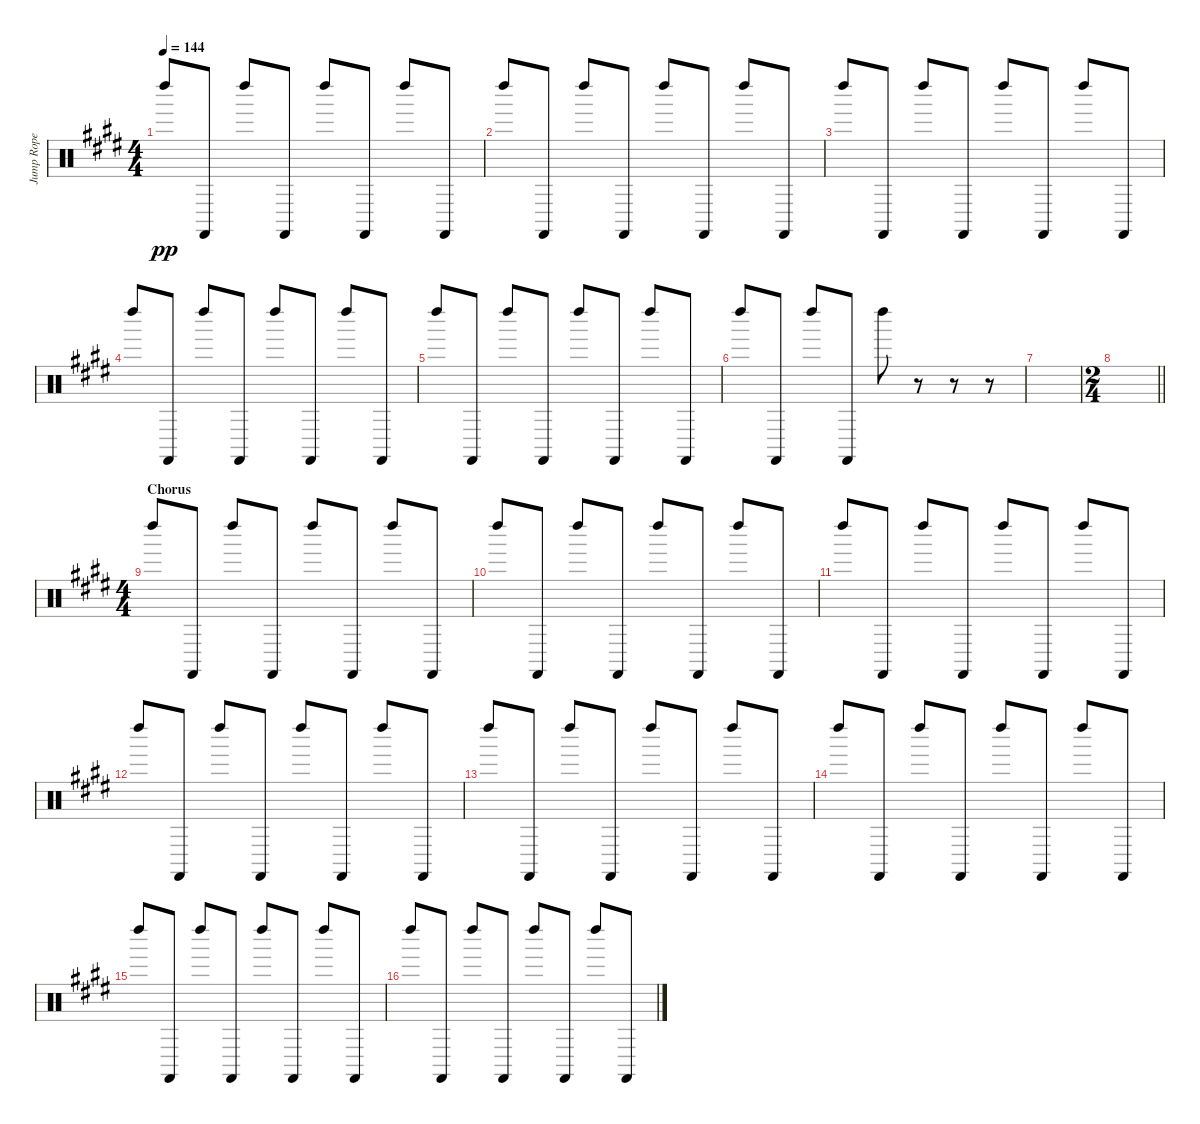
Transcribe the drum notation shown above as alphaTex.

\track ("Jump Rope" "Jump Rope") {instrument percussion}
\staff {score}
\articulation defaults
\ts (4 4)
\tempo 144
\clef neutral
\ks e "Left Maraca (hit)".8{dy pp} "Castanets (hit)".8 "Left Maraca (hit)".8 "Castanets (hit)".8 "Left Maraca (hit)".8 "Castanets (hit)".8 "Left Maraca (hit)".8 "Castanets (hit)".8
|
"Left Maraca (hit)".8 "Castanets (hit)".8 "Left Maraca (hit)".8 "Castanets (hit)".8 "Left Maraca (hit)".8 "Castanets (hit)".8 "Left Maraca (hit)".8 "Castanets (hit)".8 |
"Left Maraca (hit)".8 "Castanets (hit)".8 "Left Maraca (hit)".8 "Castanets (hit)".8 "Left Maraca (hit)".8 "Castanets (hit)".8 "Left Maraca (hit)".8 "Castanets (hit)".8 |
"Left Maraca (hit)".8 "Castanets (hit)".8 "Left Maraca (hit)".8 "Castanets (hit)".8 "Left Maraca (hit)".8 "Castanets (hit)".8 "Left Maraca (hit)".8 "Castanets (hit)".8 |
"Left Maraca (hit)".8 "Castanets (hit)".8 "Left Maraca (hit)".8 "Castanets (hit)".8 "Left Maraca (hit)".8 "Castanets (hit)".8 "Left Maraca (hit)".8 "Castanets (hit)".8 |
"Left Maraca (hit)".8 "Castanets (hit)".8 "Left Maraca (hit)".8 "Castanets (hit)".8 "Left Maraca (hit)".8 r.8 r.8 r.8 |
|
\ts (2 4)
\barLineRight lightlight
|
\ts (4 4)
\section ("" "Chorus")
"Left Maraca (hit)".8 "Castanets (hit)".8 "Left Maraca (hit)".8 "Castanets (hit)".8 "Left Maraca (hit)".8 "Castanets (hit)".8 "Left Maraca (hit)".8 "Castanets (hit)".8 |
"Left Maraca (hit)".8 "Castanets (hit)".8 "Left Maraca (hit)".8 "Castanets (hit)".8 "Left Maraca (hit)".8 "Castanets (hit)".8 "Left Maraca (hit)".8 "Castanets (hit)".8 |
"Left Maraca (hit)".8 "Castanets (hit)".8 "Left Maraca (hit)".8 "Castanets (hit)".8 "Left Maraca (hit)".8 "Castanets (hit)".8 "Left Maraca (hit)".8 "Castanets (hit)".8 |
"Left Maraca (hit)".8 "Castanets (hit)".8 "Left Maraca (hit)".8 "Castanets (hit)".8 "Left Maraca (hit)".8 "Castanets (hit)".8 "Left Maraca (hit)".8 "Castanets (hit)".8 |
"Left Maraca (hit)".8 "Castanets (hit)".8 "Left Maraca (hit)".8 "Castanets (hit)".8 "Left Maraca (hit)".8 "Castanets (hit)".8 "Left Maraca (hit)".8 "Castanets (hit)".8 |
"Left Maraca (hit)".8 "Castanets (hit)".8 "Left Maraca (hit)".8 "Castanets (hit)".8 "Left Maraca (hit)".8 "Castanets (hit)".8 "Left Maraca (hit)".8 "Castanets (hit)".8 |
"Left Maraca (hit)".8 "Castanets (hit)".8 "Left Maraca (hit)".8 "Castanets (hit)".8 "Left Maraca (hit)".8 "Castanets (hit)".8 "Left Maraca (hit)".8 "Castanets (hit)".8 |
"Left Maraca (hit)".8 "Castanets (hit)".8 "Left Maraca (hit)".8 "Castanets (hit)".8 "Left Maraca (hit)".8 "Castanets (hit)".8 "Left Maraca (hit)".8 "Castanets (hit)".8
